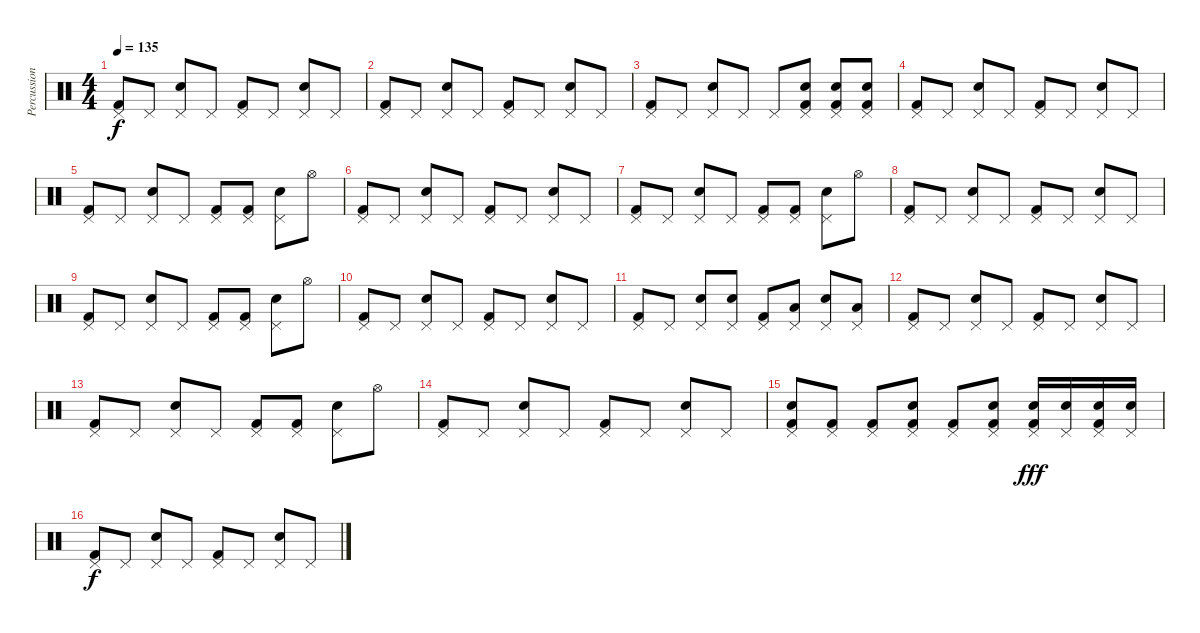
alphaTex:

\track ("Percussion" "Percussion") {instrument percussion}
\staff {score}
\articulation defaults
\ts (4 4)
\tempo 135
\clef neutral
\ks c
("Pedal Hi-Hat (hit)" "Kick (hit) 2").8{dy f} "Pedal Hi-Hat (hit)".8 ("Pedal Hi-Hat (hit)" "Electric Snare (hit)").8 "Pedal Hi-Hat (hit)".8 ("Pedal Hi-Hat (hit)" "Kick (hit) 2").8 "Pedal Hi-Hat (hit)".8 ("Pedal Hi-Hat (hit)" "Electric Snare (hit)").8 "Pedal Hi-Hat (hit)".8 |
("Pedal Hi-Hat (hit)" "Kick (hit) 2").8 "Pedal Hi-Hat (hit)".8 ("Pedal Hi-Hat (hit)" "Electric Snare (hit)").8 "Pedal Hi-Hat (hit)".8 ("Pedal Hi-Hat (hit)" "Kick (hit) 2").8 "Pedal Hi-Hat (hit)".8 ("Pedal Hi-Hat (hit)" "Electric Snare (hit)").8 "Pedal Hi-Hat (hit)".8 |
("Pedal Hi-Hat (hit)" "Kick (hit) 2").8 "Pedal Hi-Hat (hit)".8 ("Pedal Hi-Hat (hit)" "Electric Snare (hit)").8 "Pedal Hi-Hat (hit)".8 "Pedal Hi-Hat (hit)".8 ("Pedal Hi-Hat (hit)" "Electric Snare (hit)" "Kick (hit) 2").8 ("Pedal Hi-Hat (hit)" "Electric Snare (hit)" "Kick (hit) 2").8 ("Pedal Hi-Hat (hit)" "Electric Snare (hit)" "Kick (hit) 2").8 |
("Pedal Hi-Hat (hit)" "Kick (hit) 2").8 "Pedal Hi-Hat (hit)".8 ("Pedal Hi-Hat (hit)" "Electric Snare (hit)").8 "Pedal Hi-Hat (hit)".8 ("Pedal Hi-Hat (hit)" "Kick (hit) 2").8 "Pedal Hi-Hat (hit)".8 ("Pedal Hi-Hat (hit)" "Electric Snare (hit)").8 "Pedal Hi-Hat (hit)".8 |
("Pedal Hi-Hat (hit)" "Kick (hit) 2").8 "Pedal Hi-Hat (hit)".8 ("Pedal Hi-Hat (hit)" "Electric Snare (hit)").8 "Pedal Hi-Hat (hit)".8 ("Pedal Hi-Hat (hit)" "Kick (hit) 2").8 ("Pedal Hi-Hat (hit)" "Kick (hit) 2").8 ("Pedal Hi-Hat (hit)" "Electric Snare (hit)").8 "Hi-Hat (open)".8 |
("Pedal Hi-Hat (hit)" "Kick (hit) 2").8 "Pedal Hi-Hat (hit)".8 ("Pedal Hi-Hat (hit)" "Electric Snare (hit)").8 "Pedal Hi-Hat (hit)".8 ("Pedal Hi-Hat (hit)" "Kick (hit) 2").8 "Pedal Hi-Hat (hit)".8 ("Pedal Hi-Hat (hit)" "Electric Snare (hit)").8 "Pedal Hi-Hat (hit)".8 |
("Pedal Hi-Hat (hit)" "Kick (hit) 2").8 "Pedal Hi-Hat (hit)".8 ("Pedal Hi-Hat (hit)" "Electric Snare (hit)").8 "Pedal Hi-Hat (hit)".8 ("Pedal Hi-Hat (hit)" "Kick (hit) 2").8 ("Pedal Hi-Hat (hit)" "Kick (hit) 2").8 ("Pedal Hi-Hat (hit)" "Electric Snare (hit)").8 "Hi-Hat (open)".8 |
("Pedal Hi-Hat (hit)" "Kick (hit) 2").8 "Pedal Hi-Hat (hit)".8 ("Pedal Hi-Hat (hit)" "Electric Snare (hit)").8 "Pedal Hi-Hat (hit)".8 ("Pedal Hi-Hat (hit)" "Kick (hit) 2").8 "Pedal Hi-Hat (hit)".8 ("Pedal Hi-Hat (hit)" "Electric Snare (hit)").8 "Pedal Hi-Hat (hit)".8 |
("Pedal Hi-Hat (hit)" "Kick (hit) 2").8 "Pedal Hi-Hat (hit)".8 ("Pedal Hi-Hat (hit)" "Electric Snare (hit)").8 "Pedal Hi-Hat (hit)".8 ("Pedal Hi-Hat (hit)" "Kick (hit) 2").8 ("Pedal Hi-Hat (hit)" "Kick (hit) 2").8 ("Pedal Hi-Hat (hit)" "Electric Snare (hit)").8 "Hi-Hat (open)".8 |
("Pedal Hi-Hat (hit)" "Kick (hit) 2").8 "Pedal Hi-Hat (hit)".8 ("Pedal Hi-Hat (hit)" "Electric Snare (hit)").8 "Pedal Hi-Hat (hit)".8 ("Pedal Hi-Hat (hit)" "Kick (hit) 2").8 "Pedal Hi-Hat (hit)".8 ("Pedal Hi-Hat (hit)" "Electric Snare (hit)").8 "Pedal Hi-Hat (hit)".8 |
("Pedal Hi-Hat (hit)" "Kick (hit) 2").8 "Pedal Hi-Hat (hit)".8 ("Pedal Hi-Hat (hit)" "Electric Snare (hit)").8 ("Pedal Hi-Hat (hit)" "Electric Snare (hit)").8 ("Pedal Hi-Hat (hit)" "Kick (hit) 2").8 ("Pedal Hi-Hat (hit)" "Low Floor Tom (hit)").8 ("Pedal Hi-Hat (hit)" "Electric Snare (hit)").8 ("Pedal Hi-Hat (hit)" "Low Floor Tom (hit)").8 |
("Pedal Hi-Hat (hit)" "Kick (hit) 2").8 "Pedal Hi-Hat (hit)".8 ("Pedal Hi-Hat (hit)" "Electric Snare (hit)").8 "Pedal Hi-Hat (hit)".8 ("Pedal Hi-Hat (hit)" "Kick (hit) 2").8 "Pedal Hi-Hat (hit)".8 ("Pedal Hi-Hat (hit)" "Electric Snare (hit)").8 "Pedal Hi-Hat (hit)".8 |
("Pedal Hi-Hat (hit)" "Kick (hit) 2").8 "Pedal Hi-Hat (hit)".8 ("Pedal Hi-Hat (hit)" "Electric Snare (hit)").8 "Pedal Hi-Hat (hit)".8 ("Pedal Hi-Hat (hit)" "Kick (hit) 2").8 ("Pedal Hi-Hat (hit)" "Kick (hit) 2").8 ("Pedal Hi-Hat (hit)" "Electric Snare (hit)").8 "Hi-Hat (open)".8 |
("Pedal Hi-Hat (hit)" "Kick (hit) 2").8 "Pedal Hi-Hat (hit)".8 ("Pedal Hi-Hat (hit)" "Electric Snare (hit)").8 "Pedal Hi-Hat (hit)".8 ("Pedal Hi-Hat (hit)" "Kick (hit) 2").8 "Pedal Hi-Hat (hit)".8 ("Pedal Hi-Hat (hit)" "Electric Snare (hit)").8 "Pedal Hi-Hat (hit)".8 |
("Pedal Hi-Hat (hit)" "Kick (hit) 2" "Electric Snare (hit)").8 ("Pedal Hi-Hat (hit)" "Kick (hit) 2").8 ("Pedal Hi-Hat (hit)" "Kick (hit) 2").8 ("Pedal Hi-Hat (hit)" "Kick (hit) 2" "Electric Snare (hit)").8 ("Pedal Hi-Hat (hit)" "Kick (hit) 2").8 ("Pedal Hi-Hat (hit)" "Kick (hit) 2" "Electric Snare (hit)").8 ("Pedal Hi-Hat (hit)" "Kick (hit) 2" "Electric Snare (hit)").16{dy fff} ("Pedal Hi-Hat (hit)" "Electric Snare (hit)").16 ("Pedal Hi-Hat (hit)" "Kick (hit) 2" "Electric Snare (hit)").16 ("Pedal Hi-Hat (hit)" "Electric Snare (hit)").16 |
("Pedal Hi-Hat (hit)" "Kick (hit) 2").8{dy f} "Pedal Hi-Hat (hit)".8 ("Pedal Hi-Hat (hit)" "Electric Snare (hit)").8 "Pedal Hi-Hat (hit)".8 ("Pedal Hi-Hat (hit)" "Kick (hit) 2").8 "Pedal Hi-Hat (hit)".8 ("Pedal Hi-Hat (hit)" "Electric Snare (hit)").8 "Pedal Hi-Hat (hit)".8
